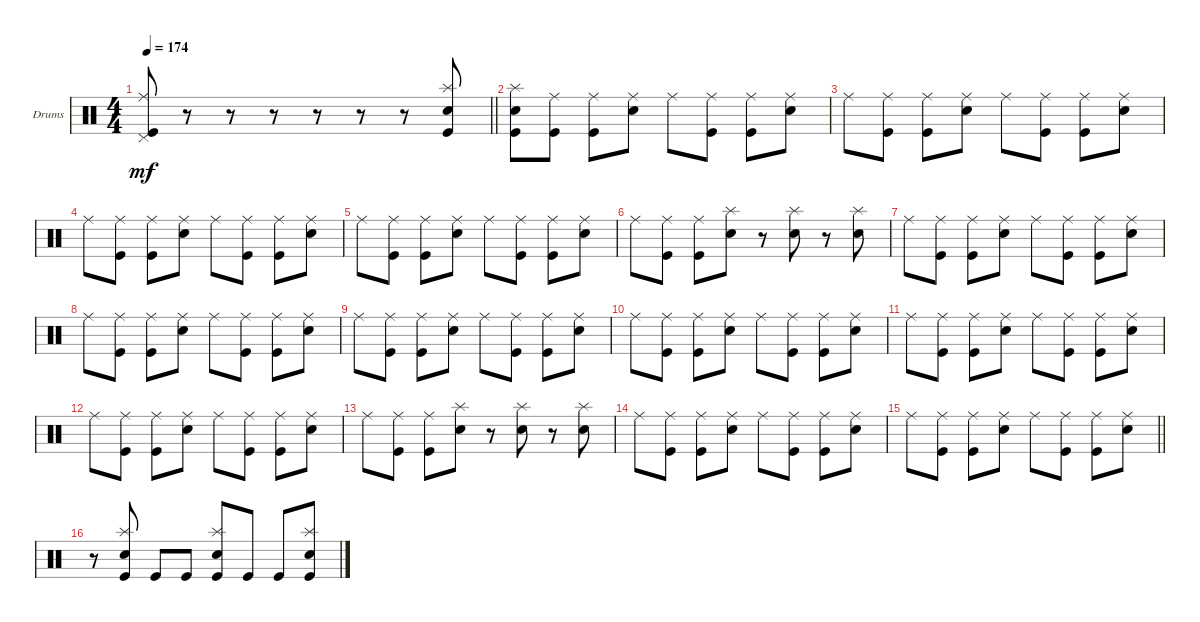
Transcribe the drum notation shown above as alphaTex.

\bracketExtendMode groupsimilarinstruments
\firstSystemTrackNameOrientation horizontal
\otherSystemsTrackNameOrientation horizontal
\track ("Drumkit" "Drums") {instrument percussion}
\staff {score}
\articulation defaults
\ts (4 4)
\tempo 174
\clef neutral
\scale
0.333333
\barLineRight lightlight
\ks c
("Pedal Hi-Hat (hit)" "Ride (middle)" "Kick (hit)").8{dy mf} r.8 r.8 r.8 r.8 r.8 r.8 ("Splash (hit)" "Snare (hit) 2" "Kick (hit)").8 |
\scale
0.333333 ("Splash (hit)" "Snare (hit) 2" "Kick (hit)").8 ("Kick (hit)" "Ride (middle)").8 ("Kick (hit)" "Ride (middle)").8 ("Snare (hit) 2" "Ride (middle)").8 "Ride (middle)".8 ("Ride (middle)" "Kick (hit)").8 ("Kick (hit)" "Ride (middle)").8 ("Snare (hit) 2" "Ride (middle)").8 |
\scale
0.333333 "Ride (middle)".8 ("Kick (hit)" "Ride (middle)").8 ("Kick (hit)" "Ride (middle)").8 ("Snare (hit) 2" "Ride (middle)").8 "Ride (middle)".8 ("Ride (middle)" "Kick (hit)").8 ("Kick (hit)" "Ride (middle)").8 ("Snare (hit) 2" "Ride (middle)").8 |
\scale
0.333333 "Ride (middle)".8 ("Kick (hit)" "Ride (middle)").8 ("Kick (hit)" "Ride (middle)").8 ("Snare (hit) 2" "Ride (middle)").8 "Ride (middle)".8 ("Ride (middle)" "Kick (hit)").8 ("Kick (hit)" "Ride (middle)").8 ("Snare (hit) 2" "Ride (middle)").8 |
\scale
0.333333 "Ride (middle)".8 ("Kick (hit)" "Ride (middle)").8 ("Kick (hit)" "Ride (middle)").8 ("Snare (hit) 2" "Ride (middle)").8 "Ride (middle)".8 ("Ride (middle)" "Kick (hit)").8 ("Kick (hit)" "Ride (middle)").8 ("Snare (hit) 2" "Ride (middle)").8 |
\scale
0.333333 "Ride (middle)".8 ("Kick (hit)" "Ride (middle)").8 ("Kick (hit)" "Ride (middle)").8 ("Snare (hit) 2" "Splash (hit)").8 r.8 ("Snare (hit) 2" "Splash (hit)").8 r.8 ("Splash (hit)" "Snare (hit) 2").8 |
\scale
0.333333 "Ride (middle)".8 ("Kick (hit)" "Ride (middle)").8 ("Kick (hit)" "Ride (middle)").8 ("Snare (hit) 2" "Ride (middle)").8 "Ride (middle)".8 ("Ride (middle)" "Kick (hit)").8 ("Kick (hit)" "Ride (middle)").8 ("Snare (hit) 2" "Ride (middle)").8 |
\scale
0.333333 "Ride (middle)".8 ("Kick (hit)" "Ride (middle)").8 ("Kick (hit)" "Ride (middle)").8 ("Snare (hit) 2" "Ride (middle)").8 "Ride (middle)".8 ("Ride (middle)" "Kick (hit)").8 ("Kick (hit)" "Ride (middle)").8 ("Snare (hit) 2" "Ride (middle)").8 |
\scale
0.333333 "Ride (middle)".8 ("Kick (hit)" "Ride (middle)").8 ("Kick (hit)" "Ride (middle)").8 ("Snare (hit) 2" "Ride (middle)").8 "Ride (middle)".8 ("Ride (middle)" "Kick (hit)").8 ("Kick (hit)" "Ride (middle)").8 ("Snare (hit) 2" "Ride (middle)").8 |
\scale
0.333333 "Ride (middle)".8 ("Kick (hit)" "Ride (middle)").8 ("Kick (hit)" "Ride (middle)").8 ("Snare (hit) 2" "Ride (middle)").8 "Ride (middle)".8 ("Ride (middle)" "Kick (hit)").8 ("Kick (hit)" "Ride (middle)").8 ("Snare (hit) 2" "Ride (middle)").8 |
\scale
0.333333 "Ride (middle)".8 ("Kick (hit)" "Ride (middle)").8 ("Kick (hit)" "Ride (middle)").8 ("Snare (hit) 2" "Ride (middle)").8 "Ride (middle)".8 ("Ride (middle)" "Kick (hit)").8 ("Kick (hit)" "Ride (middle)").8 ("Snare (hit) 2" "Ride (middle)").8 |
\scale
0.333333 "Ride (middle)".8 ("Kick (hit)" "Ride (middle)").8 ("Kick (hit)" "Ride (middle)").8 ("Snare (hit) 2" "Ride (middle)").8 "Ride (middle)".8 ("Ride (middle)" "Kick (hit)").8 ("Kick (hit)" "Ride (middle)").8 ("Snare (hit) 2" "Ride (middle)").8 |
\scale
0.333333 "Ride (middle)".8 ("Kick (hit)" "Ride (middle)").8 ("Kick (hit)" "Ride (middle)").8 ("Snare (hit) 2" "Splash (hit)").8 r.8 ("Snare (hit) 2" "Splash (hit)").8 r.8 ("Splash (hit)" "Snare (hit) 2").8 |
\scale
0.333333 "Ride (middle)".8 ("Kick (hit)" "Ride (middle)").8 ("Kick (hit)" "Ride (middle)").8 ("Snare (hit) 2" "Ride (middle)").8 "Ride (middle)".8 ("Ride (middle)" "Kick (hit)").8 ("Kick (hit)" "Ride (middle)").8 ("Snare (hit) 2" "Ride (middle)").8 |
\scale
0.333333
\barLineRight lightlight "Ride (middle)".8
("Kick (hit)" "Ride (middle)").8 ("Kick (hit)" "Ride (middle)").8 ("Snare (hit) 2" "Ride (middle)").8 "Ride (middle)".8 ("Ride (middle)" "Kick (hit)").8 ("Kick (hit)" "Ride (middle)").8 ("Snare (hit) 2" "Ride (middle)").8 |
\scale
0.333333 r.8 ("Splash (hit)" "Snare (hit) 2" "Kick (hit)").8 "Kick (hit)".8 "Kick (hit)".8 ("Splash (hit)" "Snare (hit) 2" "Kick (hit)").8 "Kick (hit)".8 "Kick (hit)".8 ("Splash (hit)" "Snare (hit) 2" "Kick (hit)").8
